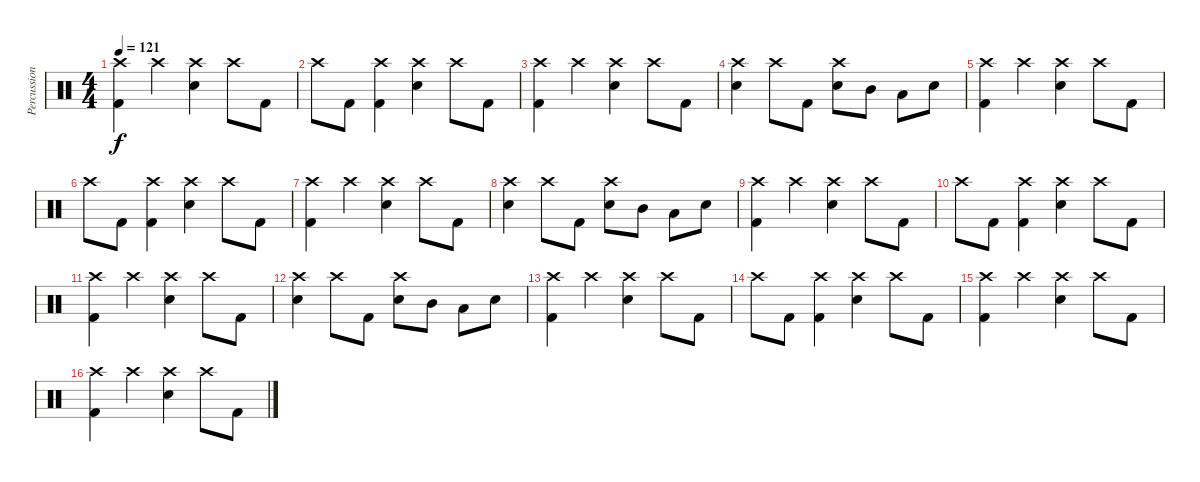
\track ("Percussion" "Percussion") {instrument percussion}
\staff {score}
\articulation defaults
\ts (4 4)
\tempo 121
\clef neutral
\ks c
("Crash high (hit)" "Kick (hit) 2").4{dy f} "Crash high (hit)".4 ("Crash high (hit)" "Snare (hit) 2").4 "Crash high (hit)".8 "Kick (hit) 2".8 |
"Crash high (hit)".8 "Kick (hit) 2".8 ("Crash high (hit)" "Kick (hit) 2").4 ("Crash high (hit)" "Snare (hit) 2").4 "Crash high (hit)".8 "Kick (hit) 2".8 |
("Crash high (hit)" "Kick (hit) 2").4 "Crash high (hit)".4 ("Crash high (hit)" "Snare (hit) 2").4 "Crash high (hit)".8 "Kick (hit) 2".8 |
("Crash high (hit)" "Snare (hit) 2").4 "Crash high (hit)".8 "Kick (hit) 2".8 ("Crash high (hit)" "Snare (hit) 2").8 "Mid Tom (hit)".8 "Low Tom (hit)".8 "Snare (hit) 2".8 |
("Crash high (hit)" "Kick (hit) 2").4 "Crash high (hit)".4 ("Crash high (hit)" "Snare (hit) 2").4 "Crash high (hit)".8 "Kick (hit) 2".8 |
"Crash high (hit)".8 "Kick (hit) 2".8 ("Crash high (hit)" "Kick (hit) 2").4 ("Crash high (hit)" "Snare (hit) 2").4 "Crash high (hit)".8 "Kick (hit) 2".8 |
("Crash high (hit)" "Kick (hit) 2").4 "Crash high (hit)".4 ("Crash high (hit)" "Snare (hit) 2").4 "Crash high (hit)".8 "Kick (hit) 2".8 |
("Crash high (hit)" "Snare (hit) 2").4 "Crash high (hit)".8 "Kick (hit) 2".8 ("Crash high (hit)" "Snare (hit) 2").8 "Mid Tom (hit)".8 "Low Tom (hit)".8 "Snare (hit) 2".8 |
("Crash high (hit)" "Kick (hit) 2").4 "Crash high (hit)".4 ("Crash high (hit)" "Snare (hit) 2").4 "Crash high (hit)".8 "Kick (hit) 2".8 |
"Crash high (hit)".8 "Kick (hit) 2".8 ("Crash high (hit)" "Kick (hit) 2").4 ("Crash high (hit)" "Snare (hit) 2").4 "Crash high (hit)".8 "Kick (hit) 2".8 |
("Crash high (hit)" "Kick (hit) 2").4 "Crash high (hit)".4 ("Crash high (hit)" "Snare (hit) 2").4 "Crash high (hit)".8 "Kick (hit) 2".8 |
("Crash high (hit)" "Snare (hit) 2").4 "Crash high (hit)".8 "Kick (hit) 2".8 ("Crash high (hit)" "Snare (hit) 2").8 "Mid Tom (hit)".8 "Low Tom (hit)".8 "Snare (hit) 2".8 |
("Crash high (hit)" "Kick (hit) 2").4 "Crash high (hit)".4 ("Crash high (hit)" "Snare (hit) 2").4 "Crash high (hit)".8 "Kick (hit) 2".8 |
"Crash high (hit)".8 "Kick (hit) 2".8 ("Crash high (hit)" "Kick (hit) 2").4 ("Crash high (hit)" "Snare (hit) 2").4 "Crash high (hit)".8 "Kick (hit) 2".8 |
("Crash high (hit)" "Kick (hit) 2").4 "Crash high (hit)".4 ("Crash high (hit)" "Snare (hit) 2").4 "Crash high (hit)".8 "Kick (hit) 2".8 |
("Crash high (hit)" "Kick (hit) 2").4 "Crash high (hit)".4 ("Crash high (hit)" "Snare (hit) 2").4 "Crash high (hit)".8 "Kick (hit) 2".8
